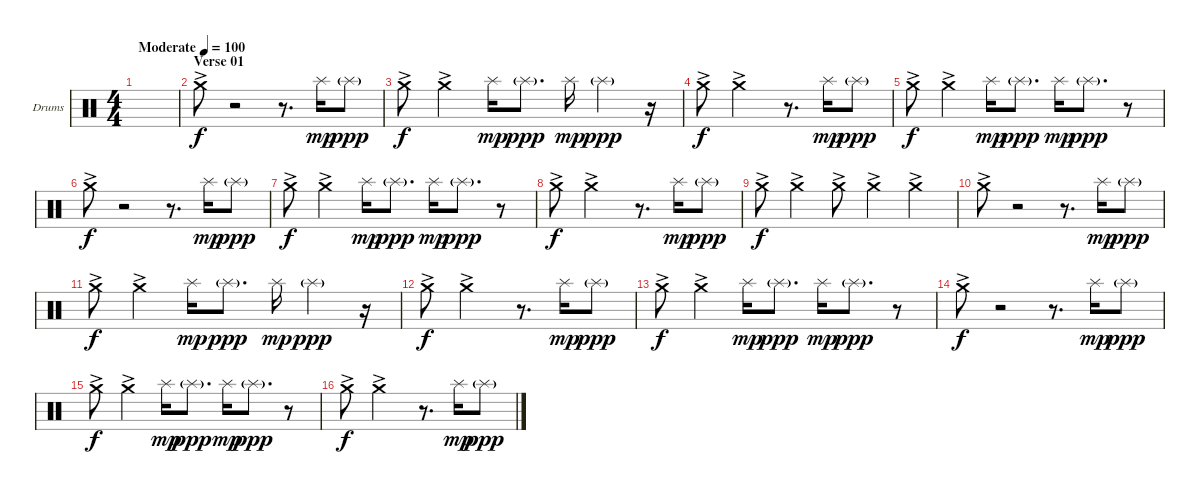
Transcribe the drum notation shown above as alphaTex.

\bracketExtendMode groupsimilarinstruments
\firstSystemTrackNameOrientation horizontal
\otherSystemsTrackNameOrientation horizontal
\track ("Cymbals left" "Drums") {instrument percussion}
\staff {score}
\articulation defaults
\ts (4 4)
\tempo (100 "Moderate")
\clef neutral
\ks c
|
\section ("" "Verse 01")
"Crash medium (hit)"{ac}.8 r.2 r.8{d} "Splash (hit)".16{dy mp} "Splash (hit)"{g}.8{dy ppp} |
"Crash medium (hit)"{ac}.8{dy f} "Crash medium (hit)"{ac}.4 "Splash (hit)".16{dy mp} "Splash (hit)"{g}.8{d dy ppp} "Splash (hit)".16{dy mp} "Splash (hit)"{g}.4{dy ppp} r.16 |
"Crash medium (hit)"{ac}.8{dy f} "Crash medium (hit)"{ac}.2 r.8{d} "Splash (hit)".16{dy mp} "Splash (hit)"{g}.8{dy ppp} |
"Crash medium (hit)"{ac}.8{dy f} "Crash medium (hit)"{ac}.4 "Splash (hit)".16{dy mp} "Splash (hit)"{g}.8{d dy ppp} "Splash (hit)".16{dy mp} "Splash (hit)"{g}.8{d dy ppp} r.8 |
"Crash medium (hit)"{ac}.8{dy f} r.2 r.8{d} "Splash (hit)".16{dy mp} "Splash (hit)"{g}.8{dy ppp} |
"Crash medium (hit)"{ac}.8{dy f} "Crash medium (hit)"{ac}.4 "Splash (hit)".16{dy mp} "Splash (hit)"{g}.8{d dy ppp} "Splash (hit)".16{dy mp} "Splash (hit)"{g}.8{d dy ppp} r.8 |
"Crash medium (hit)"{ac}.8{dy f} "Crash medium (hit)"{ac}.2 r.8{d} "Splash (hit)".16{dy mp} "Splash (hit)"{g}.8{dy ppp} |
"Crash medium (hit)"{ac}.8{dy f} "Crash medium (hit)"{ac}.4 "Crash medium (hit)"{ac}.8 "Crash medium (hit)"{ac}.4 "Crash medium (hit)"{ac}.4 |
"Crash medium (hit)"{ac}.8 r.2 r.8{d} "Splash (hit)".16{dy mp} "Splash (hit)"{g}.8{dy ppp} |
"Crash medium (hit)"{ac}.8{dy f} "Crash medium (hit)"{ac}.4 "Splash (hit)".16{dy mp} "Splash (hit)"{g}.8{d dy ppp} "Splash (hit)".16{dy mp} "Splash (hit)"{g}.4{dy ppp} r.16 |
"Crash medium (hit)"{ac}.8{dy f} "Crash medium (hit)"{ac}.2 r.8{d} "Splash (hit)".16{dy mp} "Splash (hit)"{g}.8{dy ppp} |
"Crash medium (hit)"{ac}.8{dy f} "Crash medium (hit)"{ac}.4 "Splash (hit)".16{dy mp} "Splash (hit)"{g}.8{d dy ppp} "Splash (hit)".16{dy mp} "Splash (hit)"{g}.8{d dy ppp} r.8 |
"Crash medium (hit)"{ac}.8{dy f} r.2 r.8{d} "Splash (hit)".16{dy mp} "Splash (hit)"{g}.8{dy ppp} |
"Crash medium (hit)"{ac}.8{dy f} "Crash medium (hit)"{ac}.4 "Splash (hit)".16{dy mp} "Splash (hit)"{g}.8{d dy ppp} "Splash (hit)".16{dy mp} "Splash (hit)"{g}.8{d dy ppp} r.8 |
"Crash medium (hit)"{ac}.8{dy f} "Crash medium (hit)"{ac}.2 r.8{d} "Splash (hit)".16{dy mp} "Splash (hit)"{g}.8{dy ppp}
